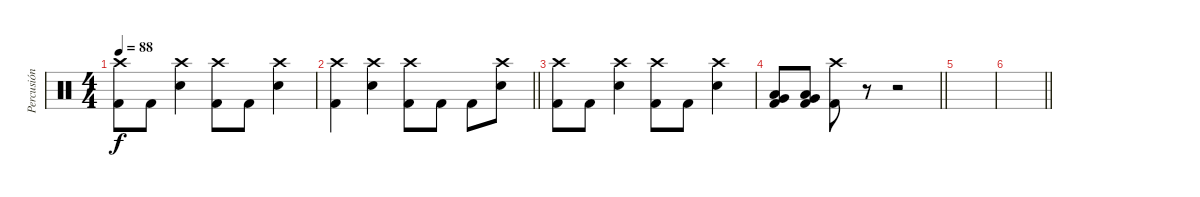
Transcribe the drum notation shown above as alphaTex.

\track ("Percusión" "Percusión") {instrument percussion}
\staff {score}
\articulation defaults
\ts (4 4)
\tempo 88
\clef neutral
\ks c
("Crash high (hit)" "Kick (hit) 2").8{dy f} "Kick (hit) 2".8 ("Crash high (hit)" "Electric Snare (hit)").4 ("Crash high (hit)" "Kick (hit) 2").8 "Kick (hit) 2".8 ("Crash high (hit)" "Electric Snare (hit)").4 |
\barLineRight lightlight
("Crash high (hit)" "Kick (hit) 2").4 ("Crash high (hit)" "Electric Snare (hit)").4 ("Crash high (hit)" "Kick (hit) 2").8 "Kick (hit) 2".8 "Kick (hit) 2".8 ("Crash high (hit)" "Electric Snare (hit)").8 |
("Crash high (hit)" "Kick (hit) 2").8 "Kick (hit) 2".8 ("Crash high (hit)" "Electric Snare (hit)").4 ("Crash high (hit)" "Kick (hit) 2").8 "Kick (hit) 2".8 ("Crash high (hit)" "Electric Snare (hit)").4 |
\barLineRight lightlight
("Low Floor Tom (hit)" "Very Low Tom (hit)" "Kick (hit) 2").8 ("Very Low Tom (hit)" "Low Floor Tom (hit)" "Kick (hit) 2").8 ("Crash high (hit)" "Kick (hit) 2").8 r.8 r.2 |
|
\barLineRight lightlight
